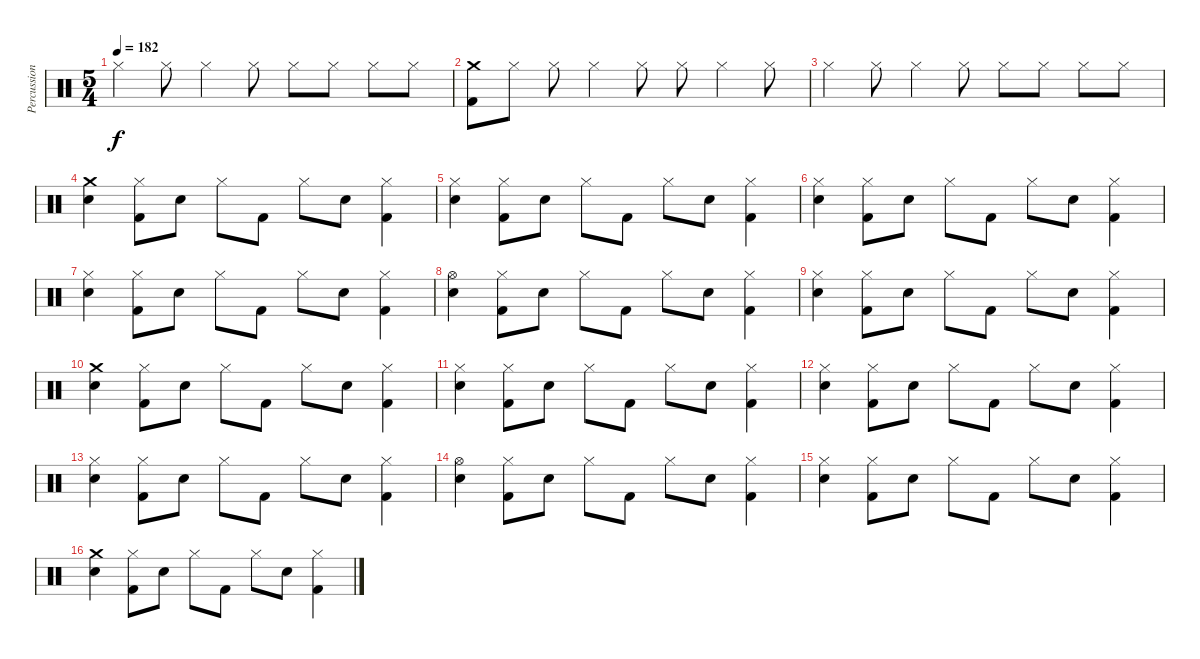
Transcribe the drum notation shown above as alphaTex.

\track ("Percussion" "Percussion") {instrument percussion}
\staff {score}
\articulation defaults
\ts (5 4)
\tempo 182
\clef neutral
\ks c "Hi-Hat (closed)".4{dy f} "Hi-Hat (closed)".8 "Hi-Hat (closed)".4 "Hi-Hat (closed)".8 "Hi-Hat (closed)".8 "Hi-Hat (closed)".8 "Hi-Hat (closed)".8 "Hi-Hat (closed)".8
|
("Crash medium (hit)" "Kick (hit) 2").8 "Hi-Hat (closed)".8 "Hi-Hat (closed)".8 "Hi-Hat (closed)".4 "Hi-Hat (closed)".8 "Hi-Hat (closed)".8 "Hi-Hat (closed)".4 "Hi-Hat (closed)".8 |
"Hi-Hat (closed)".4 "Hi-Hat (closed)".8 "Hi-Hat (closed)".4 "Hi-Hat (closed)".8 "Hi-Hat (closed)".8 "Hi-Hat (closed)".8 "Hi-Hat (closed)".8 "Hi-Hat (closed)".8 |
("Crash medium (hit)" "Electric Snare (hit)").4 ("Hi-Hat (closed)" "Kick (hit) 2").8 "Electric Snare (hit)".8 "Hi-Hat (closed)".8 "Kick (hit) 2".8 "Hi-Hat (closed)".8 "Electric Snare (hit)".8 ("Hi-Hat (closed)" "Kick (hit) 2").4 |
("Hi-Hat (closed)" "Electric Snare (hit)").4 ("Hi-Hat (closed)" "Kick (hit) 2").8 "Electric Snare (hit)".8 "Hi-Hat (closed)".8 "Kick (hit) 2".8 "Hi-Hat (closed)".8 "Electric Snare (hit)".8 ("Hi-Hat (closed)" "Kick (hit) 2").4 |
("Hi-Hat (closed)" "Electric Snare (hit)").4 ("Hi-Hat (closed)" "Kick (hit) 2").8 "Electric Snare (hit)".8 "Hi-Hat (closed)".8 "Kick (hit) 2".8 "Hi-Hat (closed)".8 "Electric Snare (hit)".8 ("Hi-Hat (closed)" "Kick (hit) 2").4 |
("Hi-Hat (closed)" "Electric Snare (hit)").4 ("Hi-Hat (closed)" "Kick (hit) 2").8 "Electric Snare (hit)".8 "Hi-Hat (closed)".8 "Kick (hit) 2".8 "Hi-Hat (closed)".8 "Electric Snare (hit)".8 ("Hi-Hat (closed)" "Kick (hit) 2").4 |
("Hi-Hat (open)" "Electric Snare (hit)").4 ("Hi-Hat (closed)" "Kick (hit) 2").8 "Electric Snare (hit)".8 "Hi-Hat (closed)".8 "Kick (hit) 2".8 "Hi-Hat (closed)".8 "Electric Snare (hit)".8 ("Hi-Hat (closed)" "Kick (hit) 2").4 |
("Hi-Hat (closed)" "Electric Snare (hit)").4 ("Hi-Hat (closed)" "Kick (hit) 2").8 "Electric Snare (hit)".8 "Hi-Hat (closed)".8 "Kick (hit) 2".8 "Hi-Hat (closed)".8 "Electric Snare (hit)".8 ("Hi-Hat (closed)" "Kick (hit) 2").4 |
("Crash medium (hit)" "Electric Snare (hit)").4 ("Hi-Hat (closed)" "Kick (hit) 2").8 "Electric Snare (hit)".8 "Hi-Hat (closed)".8 "Kick (hit) 2".8 "Hi-Hat (closed)".8 "Electric Snare (hit)".8 ("Hi-Hat (closed)" "Kick (hit) 2").4 |
("Hi-Hat (closed)" "Electric Snare (hit)").4 ("Hi-Hat (closed)" "Kick (hit) 2").8 "Electric Snare (hit)".8 "Hi-Hat (closed)".8 "Kick (hit) 2".8 "Hi-Hat (closed)".8 "Electric Snare (hit)".8 ("Hi-Hat (closed)" "Kick (hit) 2").4 |
("Hi-Hat (closed)" "Electric Snare (hit)").4 ("Hi-Hat (closed)" "Kick (hit) 2").8 "Electric Snare (hit)".8 "Hi-Hat (closed)".8 "Kick (hit) 2".8 "Hi-Hat (closed)".8 "Electric Snare (hit)".8 ("Hi-Hat (closed)" "Kick (hit) 2").4 |
("Hi-Hat (closed)" "Electric Snare (hit)").4 ("Hi-Hat (closed)" "Kick (hit) 2").8 "Electric Snare (hit)".8 "Hi-Hat (closed)".8 "Kick (hit) 2".8 "Hi-Hat (closed)".8 "Electric Snare (hit)".8 ("Hi-Hat (closed)" "Kick (hit) 2").4 |
("Hi-Hat (open)" "Electric Snare (hit)").4 ("Hi-Hat (closed)" "Kick (hit) 2").8 "Electric Snare (hit)".8 "Hi-Hat (closed)".8 "Kick (hit) 2".8 "Hi-Hat (closed)".8 "Electric Snare (hit)".8 ("Hi-Hat (closed)" "Kick (hit) 2").4 |
("Hi-Hat (closed)" "Electric Snare (hit)").4 ("Hi-Hat (closed)" "Kick (hit) 2").8 "Electric Snare (hit)".8 "Hi-Hat (closed)".8 "Kick (hit) 2".8 "Hi-Hat (closed)".8 "Electric Snare (hit)".8 ("Hi-Hat (closed)" "Kick (hit) 2").4 |
("Crash medium (hit)" "Electric Snare (hit)").4 ("Hi-Hat (closed)" "Kick (hit) 2").8 "Electric Snare (hit)".8 "Hi-Hat (closed)".8 "Kick (hit) 2".8 "Hi-Hat (closed)".8 "Electric Snare (hit)".8 ("Hi-Hat (closed)" "Kick (hit) 2").4
